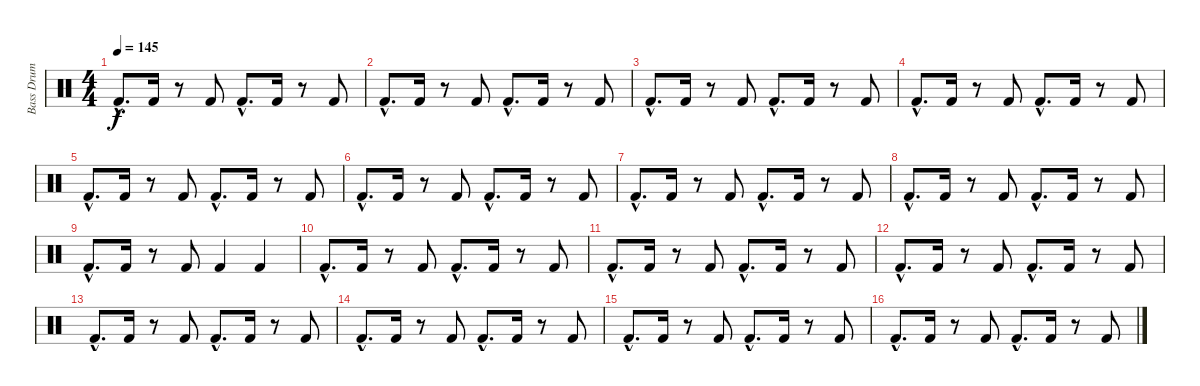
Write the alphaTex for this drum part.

\track ("Bass Drum" "Bass Drum") {instrument percussion}
\staff {score}
\articulation defaults
\ts (4 4)
\tempo 145
\clef neutral
\ks c "Kick (hit) 2"{hac}.8{d dy f} "Kick (hit) 2".16
r.8 "Kick (hit) 2".8 "Kick (hit) 2"{hac}.8{d} "Kick (hit) 2".16 r.8 "Kick (hit) 2".8 |
"Kick (hit) 2"{hac}.8{d} "Kick (hit) 2".16 r.8 "Kick (hit) 2".8 "Kick (hit) 2"{hac}.8{d} "Kick (hit) 2".16 r.8 "Kick (hit) 2".8 |
"Kick (hit) 2"{hac}.8{d} "Kick (hit) 2".16 r.8 "Kick (hit) 2".8 "Kick (hit) 2"{hac}.8{d} "Kick (hit) 2".16 r.8 "Kick (hit) 2".8 |
"Kick (hit) 2"{hac}.8{d} "Kick (hit) 2".16 r.8 "Kick (hit) 2".8 "Kick (hit) 2"{hac}.8{d} "Kick (hit) 2".16 r.8 "Kick (hit) 2".8 |
"Kick (hit) 2"{hac}.8{d} "Kick (hit) 2".16 r.8 "Kick (hit) 2".8 "Kick (hit) 2"{hac}.8{d} "Kick (hit) 2".16 r.8 "Kick (hit) 2".8 |
"Kick (hit) 2"{hac}.8{d} "Kick (hit) 2".16 r.8 "Kick (hit) 2".8 "Kick (hit) 2"{hac}.8{d} "Kick (hit) 2".16 r.8 "Kick (hit) 2".8 |
"Kick (hit) 2"{hac}.8{d} "Kick (hit) 2".16 r.8 "Kick (hit) 2".8 "Kick (hit) 2"{hac}.8{d} "Kick (hit) 2".16 r.8 "Kick (hit) 2".8 |
"Kick (hit) 2"{hac}.8{d} "Kick (hit) 2".16 r.8 "Kick (hit) 2".8 "Kick (hit) 2"{hac}.8{d} "Kick (hit) 2".16 r.8 "Kick (hit) 2".8 |
"Kick (hit) 2"{hac}.8{d} "Kick (hit) 2".16 r.8 "Kick (hit) 2".8 "Kick (hit) 2".4 "Kick (hit) 2".4 |
"Kick (hit) 2"{hac}.8{d} "Kick (hit) 2".16 r.8 "Kick (hit) 2".8 "Kick (hit) 2"{hac}.8{d} "Kick (hit) 2".16 r.8 "Kick (hit) 2".8 |
"Kick (hit) 2"{hac}.8{d} "Kick (hit) 2".16 r.8 "Kick (hit) 2".8 "Kick (hit) 2"{hac}.8{d} "Kick (hit) 2".16 r.8 "Kick (hit) 2".8 |
"Kick (hit) 2"{hac}.8{d} "Kick (hit) 2".16 r.8 "Kick (hit) 2".8 "Kick (hit) 2"{hac}.8{d} "Kick (hit) 2".16 r.8 "Kick (hit) 2".8 |
"Kick (hit) 2"{hac}.8{d} "Kick (hit) 2".16 r.8 "Kick (hit) 2".8 "Kick (hit) 2"{hac}.8{d} "Kick (hit) 2".16 r.8 "Kick (hit) 2".8 |
"Kick (hit) 2"{hac}.8{d} "Kick (hit) 2".16 r.8 "Kick (hit) 2".8 "Kick (hit) 2"{hac}.8{d} "Kick (hit) 2".16 r.8 "Kick (hit) 2".8 |
"Kick (hit) 2"{hac}.8{d} "Kick (hit) 2".16 r.8 "Kick (hit) 2".8 "Kick (hit) 2"{hac}.8{d} "Kick (hit) 2".16 r.8 "Kick (hit) 2".8 |
"Kick (hit) 2"{hac}.8{d} "Kick (hit) 2".16 r.8 "Kick (hit) 2".8 "Kick (hit) 2"{hac}.8{d} "Kick (hit) 2".16 r.8 "Kick (hit) 2".8
